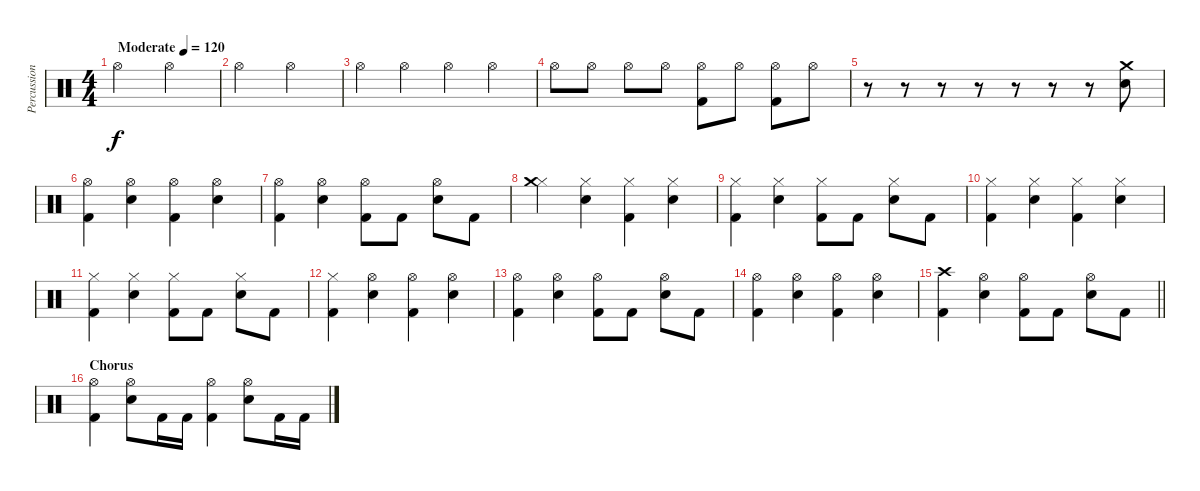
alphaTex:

\track ("Percussion" "Percussion") {instrument percussion}
\staff {score}
\articulation defaults
\ts (4 4)
\tempo (120 "Moderate")
\clef neutral
\ks c "Hi-Hat (open)".2{dy f} "Hi-Hat (open)".2
|
"Hi-Hat (open)".2 "Hi-Hat (open)".2 |
"Hi-Hat (open)".4 "Hi-Hat (open)".4 "Hi-Hat (open)".4 "Hi-Hat (open)".4 |
"Hi-Hat (open)".8 "Hi-Hat (open)".8 "Hi-Hat (open)".8 "Hi-Hat (open)".8 ("Hi-Hat (open)" "Kick (hit) 2").8 "Hi-Hat (open)".8 ("Hi-Hat (open)" "Kick (hit) 2").8 "Hi-Hat (open)".8 |
r.8 r.8 r.8 r.8 r.8 r.8 r.8 ("Crash medium (hit)" "Electric Snare (hit)").8 |
("Hi-Hat (open)" "Kick (hit) 2").4 ("Hi-Hat (open)" "Electric Snare (hit)").4 ("Hi-Hat (open)" "Kick (hit) 2").4 ("Hi-Hat (open)" "Electric Snare (hit)").4 |
("Hi-Hat (open)" "Kick (hit) 2").4 ("Hi-Hat (open)" "Electric Snare (hit)").4 ("Hi-Hat (open)" "Kick (hit) 2").8 "Kick (hit) 2".8 ("Hi-Hat (open)" "Electric Snare (hit)").8 "Kick (hit) 2".8 |
("Hi-Hat (closed)" "Crash medium (hit)").4 ("Hi-Hat (closed)" "Electric Snare (hit)").4 ("Hi-Hat (closed)" "Kick (hit) 2").4 ("Hi-Hat (closed)" "Electric Snare (hit)").4 |
("Hi-Hat (closed)" "Kick (hit) 2").4 ("Hi-Hat (closed)" "Electric Snare (hit)").4 ("Hi-Hat (closed)" "Kick (hit) 2").8 "Kick (hit) 2".8 ("Hi-Hat (closed)" "Electric Snare (hit)").8 "Kick (hit) 2".8 |
("Hi-Hat (closed)" "Kick (hit) 2").4 ("Hi-Hat (closed)" "Electric Snare (hit)").4 ("Hi-Hat (closed)" "Kick (hit) 2").4 ("Hi-Hat (closed)" "Electric Snare (hit)").4 |
("Hi-Hat (closed)" "Kick (hit) 2").4 ("Hi-Hat (closed)" "Electric Snare (hit)").4 ("Hi-Hat (closed)" "Kick (hit) 2").8 "Kick (hit) 2".8 ("Hi-Hat (closed)" "Electric Snare (hit)").8 "Kick (hit) 2".8 |
("Hi-Hat (closed)" "Kick (hit) 2").4 ("Hi-Hat (open)" "Electric Snare (hit)").4 ("Hi-Hat (open)" "Kick (hit) 2").4 ("Hi-Hat (open)" "Electric Snare (hit)").4 |
("Hi-Hat (open)" "Kick (hit) 2").4 ("Hi-Hat (open)" "Electric Snare (hit)").4 ("Hi-Hat (open)" "Kick (hit) 2").8 "Kick (hit) 2".8 ("Hi-Hat (open)" "Electric Snare (hit)").8 "Kick (hit) 2".8 |
("Hi-Hat (open)" "Kick (hit) 2").4 ("Hi-Hat (open)" "Electric Snare (hit)").4 ("Hi-Hat (open)" "Kick (hit) 2").4 ("Hi-Hat (open)" "Electric Snare (hit)").4 |
\barLineRight lightlight
("Crash high (hit)" "Kick (hit) 2").4 ("Hi-Hat (open)" "Electric Snare (hit)").4 ("Hi-Hat (open)" "Kick (hit) 2").8 "Kick (hit) 2".8 ("Hi-Hat (open)" "Electric Snare (hit)").8 "Kick (hit) 2".8 |
\section ("" "Chorus")
("Hi-Hat (open)" "Kick (hit) 2").4 ("Hi-Hat (open)" "Electric Snare (hit)").8 "Kick (hit) 2".16 "Kick (hit) 2".16 ("Hi-Hat (open)" "Kick (hit) 2").4 ("Hi-Hat (open)" "Electric Snare (hit)").8 "Kick (hit) 2".16 "Kick (hit) 2".16
